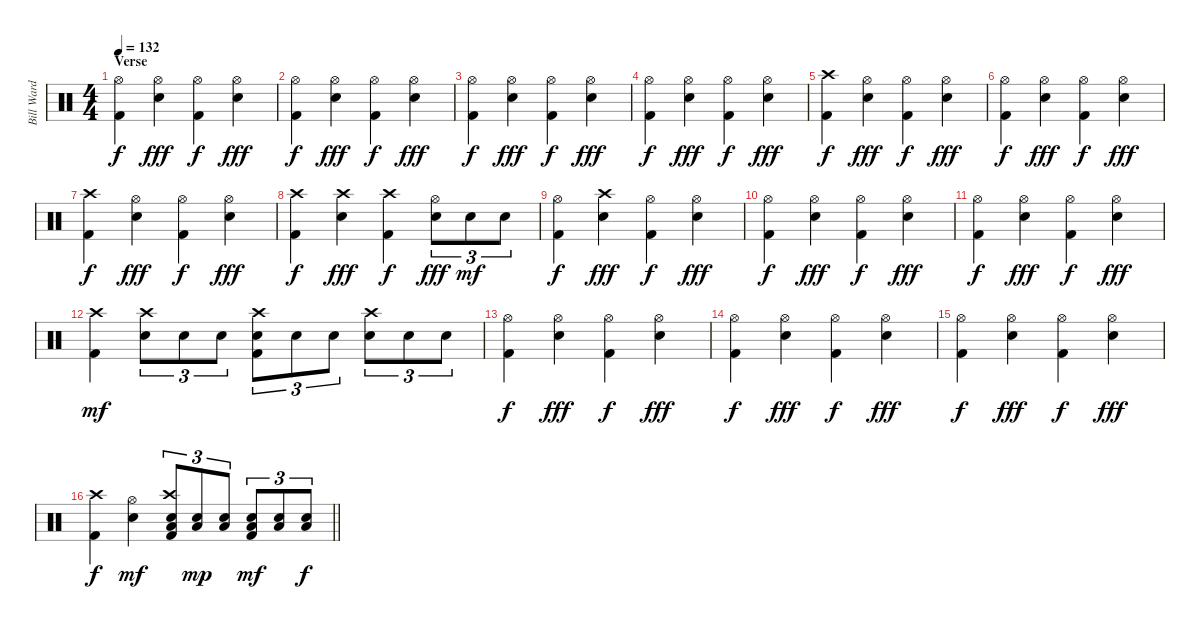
\track ("Bill Ward" "Bill Ward") {instrument percussion}
\staff {score}
\articulation defaults
\ts (4 4)
\section ("" "Verse")
\tempo 132
\clef neutral
\ks c
("Hi-Hat (open)" "Kick (hit) 2").4{dy f} ("Hi-Hat (open)" "Snare (hit) 2").4{dy fff} ("Hi-Hat (open)" "Kick (hit) 2").4{dy f} ("Hi-Hat (open)" "Snare (hit) 2").4{dy fff} |
("Hi-Hat (open)" "Kick (hit) 2").4{dy f} ("Hi-Hat (open)" "Snare (hit) 2").4{dy fff} ("Hi-Hat (open)" "Kick (hit) 2").4{dy f} ("Hi-Hat (open)" "Snare (hit) 2").4{dy fff} |
("Hi-Hat (open)" "Kick (hit) 2").4{dy f} ("Hi-Hat (open)" "Snare (hit) 2").4{dy fff} ("Hi-Hat (open)" "Kick (hit) 2").4{dy f} ("Hi-Hat (open)" "Snare (hit) 2").4{dy fff} |
("Hi-Hat (open)" "Kick (hit) 2").4{dy f} ("Hi-Hat (open)" "Snare (hit) 2").4{dy fff} ("Hi-Hat (open)" "Kick (hit) 2").4{dy f} ("Hi-Hat (open)" "Snare (hit) 2").4{dy fff} |
("Crash high (hit)" "Kick (hit) 2").4{dy f} ("Hi-Hat (open)" "Snare (hit) 2").4{dy fff} ("Hi-Hat (open)" "Kick (hit) 2").4{dy f} ("Hi-Hat (open)" "Snare (hit) 2").4{dy fff} |
("Hi-Hat (open)" "Kick (hit) 2").4{dy f} ("Hi-Hat (open)" "Snare (hit) 2").4{dy fff} ("Hi-Hat (open)" "Kick (hit) 2").4{dy f} ("Hi-Hat (open)" "Snare (hit) 2").4{dy fff} |
("Crash high (hit)" "Kick (hit) 2").4{dy f} ("Hi-Hat (open)" "Snare (hit) 2").4{dy fff} ("Hi-Hat (open)" "Kick (hit) 2").4{dy f} ("Hi-Hat (open)" "Snare (hit) 2").4{dy fff} |
("Crash high (hit)" "Kick (hit) 2").4{dy f} ("Crash high (hit)" "Snare (hit) 2").4{dy fff} ("Crash high (hit)" "Kick (hit) 2").4{dy f} ("Hi-Hat (open)" "Snare (hit) 2").8{tu (3 2) dy fff} "Snare (hit) 2".8{tu (3 2) dy mf} "Snare (hit) 2".8{tu (3 2)} |
("Hi-Hat (open)" "Kick (hit) 2").4{dy f} ("Crash high (hit)" "Snare (hit) 2").4{dy fff} ("Hi-Hat (open)" "Kick (hit) 2").4{dy f} ("Hi-Hat (open)" "Snare (hit) 2").4{dy fff} |
("Hi-Hat (open)" "Kick (hit) 2").4{dy f} ("Hi-Hat (open)" "Snare (hit) 2").4{dy fff} ("Hi-Hat (open)" "Kick (hit) 2").4{dy f} ("Hi-Hat (open)" "Snare (hit) 2").4{dy fff} |
("Hi-Hat (open)" "Kick (hit) 2").4{dy f} ("Hi-Hat (open)" "Snare (hit) 2").4{dy fff} ("Hi-Hat (open)" "Kick (hit) 2").4{dy f} ("Hi-Hat (open)" "Snare (hit) 2").4{dy fff} |
("Crash high (hit)" "Kick (hit) 2").4{dy mf} ("Crash high (hit)" "Snare (hit) 2").8{tu (3 2)} "Snare (hit) 2".8{tu (3 2)} "Snare (hit) 2".8{tu (3 2)} ("Crash high (hit)" "Snare (hit) 2" "Kick (hit) 2").8{tu (3 2)} "Snare (hit) 2".8{tu (3 2)} "Snare (hit) 2".8{tu (3 2)} ("Crash high (hit)" "Snare (hit) 2").8{tu (3 2)} "Snare (hit) 2".8{tu (3 2)} "Snare (hit) 2".8{tu (3 2)} |
("Hi-Hat (open)" "Kick (hit) 2").4{dy f} ("Hi-Hat (open)" "Snare (hit) 2").4{dy fff} ("Hi-Hat (open)" "Kick (hit) 2").4{dy f} ("Hi-Hat (open)" "Snare (hit) 2").4{dy fff} |
("Hi-Hat (open)" "Kick (hit) 2").4{dy f} ("Hi-Hat (open)" "Snare (hit) 2").4{dy fff} ("Hi-Hat (open)" "Kick (hit) 2").4{dy f} ("Hi-Hat (open)" "Snare (hit) 2").4{dy fff} |
("Hi-Hat (open)" "Kick (hit) 2").4{dy f} ("Hi-Hat (open)" "Snare (hit) 2").4{dy fff} ("Hi-Hat (open)" "Kick (hit) 2").4{dy f} ("Hi-Hat (open)" "Snare (hit) 2").4{dy fff} |
\barLineRight lightlight
("Crash high (hit)" "Kick (hit) 2").4{dy f} ("Hi-Hat (open)" "Snare (hit) 2").4{dy mf} ("Crash high (hit)" "Snare (hit) 2" "Low Tom (hit)" "Kick (hit) 2").8{tu (3 2)} ("Snare (hit) 2" "Low Tom (hit)").8{tu (3 2) dy mp} ("Snare (hit) 2" "Low Tom (hit)").8{tu (3 2)} ("Snare (hit) 2" "Low Tom (hit)" "Kick (hit) 2").8{tu (3 2) dy mf} ("Snare (hit) 2" "Low Tom (hit)").8{tu (3 2)} ("Snare (hit) 2" "Low Tom (hit)").8{tu (3 2) dy f}
